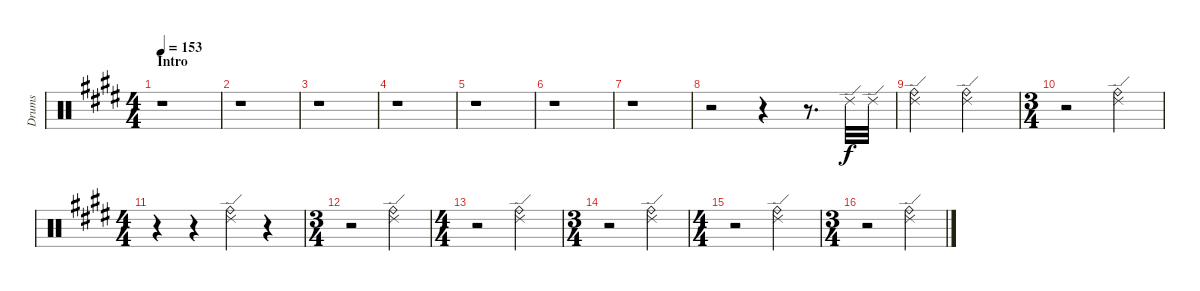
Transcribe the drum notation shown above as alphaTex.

\track ("Drums" "Drums") {instrument percussion}
\staff {score}
\articulation defaults
\ts (4 4)
\section ("" "Intro")
\tempo 153
\clef neutral
\ks e
r.1{dy f} |
r.1 |
r.1 |
r.1 |
r.1 |
r.1 |
r.1 |
r.2 r.4 r.8{d} "Ride (edge) 2".32 "Ride (edge) 2".32 |
("Ride (bell)" "Ride (edge) 2").2 ("Ride (edge) 2" "Ride (bell)").2 |
\ts (3 4)
r.2 ("Ride (edge) 2" "Ride (bell)").4 |
\ts (4 4)
r.4 r.4 ("Ride (edge) 2" "Ride (bell)").4 r.4 |
\ts (3 4)
r.2 ("Ride (edge) 2" "Ride (bell)").4 |
\ts (4 4)
r.2 ("Ride (edge) 2" "Ride (bell)").2 |
\ts (3 4)
r.2 ("Ride (edge) 2" "Ride (bell)").4 |
\ts (4 4)
r.2 ("Ride (edge) 2" "Ride (bell)").2 |
\ts (3 4)
r.2 ("Ride (edge) 2" "Ride (bell)").4
